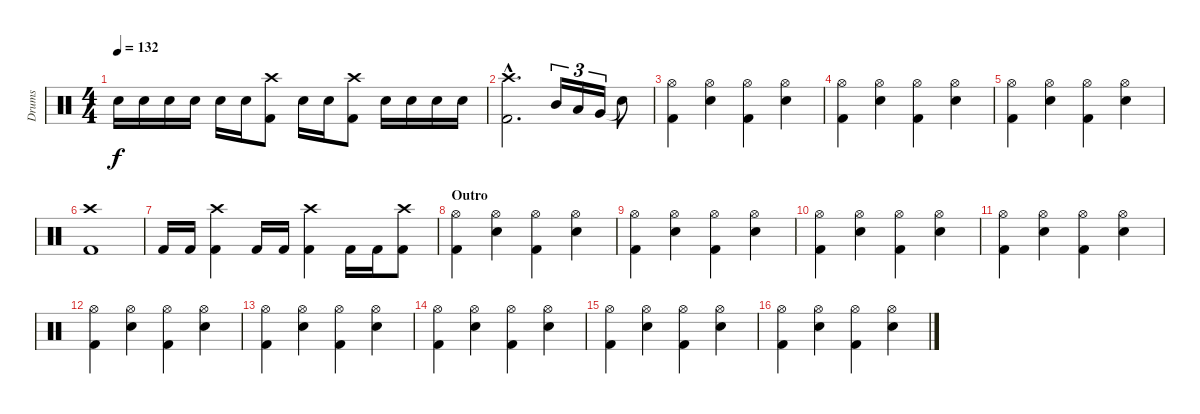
\track ("Drums" "Drums") {instrument percussion}
\staff {score}
\articulation defaults
\ts (4 4)
\tempo 132
\clef neutral
\ks c "Snare (hit) 2".16{dy f} "Snare (hit) 2".16 "Snare (hit) 2".16 "Snare (hit) 2".16 "Snare (hit) 2".16 "Snare (hit) 2".16
("Kick (hit) 2" "Crash high (hit)").8 "Snare (hit) 2".16 "Snare (hit) 2".16 ("Kick (hit) 2" "Crash high (hit)").8 "Snare (hit) 2".16 "Snare (hit) 2".16 "Snare (hit) 2".16 "Snare (hit) 2".16 |
("Kick (hit) 2"{hac} "Crash high (hit)"{hac}).2{d} "Mid Tom (hit)".16{tu (3 2)} "Low Tom (hit)".16{tu (3 2)} "Very Low Tom (hit)".16{tu (3 2)} "Snare (hit)"{t}.8 |
("Kick (hit) 2" "Hi-Hat (open)").4 ("Snare (hit) 2" "Hi-Hat (open)").4 ("Kick (hit) 2" "Hi-Hat (open)").4 ("Snare (hit) 2" "Hi-Hat (open)").4 |
("Kick (hit) 2" "Hi-Hat (open)").4 ("Snare (hit) 2" "Hi-Hat (open)").4 ("Kick (hit) 2" "Hi-Hat (open)").4 ("Snare (hit) 2" "Hi-Hat (open)").4 |
("Kick (hit) 2" "Hi-Hat (open)").4 ("Snare (hit) 2" "Hi-Hat (open)").4 ("Kick (hit) 2" "Hi-Hat (open)").4 ("Snare (hit) 2" "Hi-Hat (open)").4 |
("Kick (hit) 2" "Crash high (hit)").1 |
"Kick (hit) 2".16 "Kick (hit) 2".16 ("Kick (hit) 2" "Crash high (hit)").4 "Kick (hit) 2".16 "Kick (hit) 2".16 ("Kick (hit) 2" "Crash high (hit)").4 "Kick (hit) 2".16 "Kick (hit) 2".16 ("Kick (hit) 2" "Crash high (hit)").8 |
\section ("" "Outro")
("Kick (hit) 2" "Hi-Hat (open)").4 ("Snare (hit) 2" "Hi-Hat (open)").4 ("Kick (hit) 2" "Hi-Hat (open)").4 ("Snare (hit) 2" "Hi-Hat (open)").4 |
("Kick (hit) 2" "Hi-Hat (open)").4 ("Snare (hit) 2" "Hi-Hat (open)").4 ("Kick (hit) 2" "Hi-Hat (open)").4 ("Snare (hit) 2" "Hi-Hat (open)").4 |
("Kick (hit) 2" "Hi-Hat (open)").4 ("Snare (hit) 2" "Hi-Hat (open)").4 ("Kick (hit) 2" "Hi-Hat (open)").4 ("Snare (hit) 2" "Hi-Hat (open)").4 |
("Kick (hit) 2" "Hi-Hat (open)").4 ("Snare (hit) 2" "Hi-Hat (open)").4 ("Kick (hit) 2" "Hi-Hat (open)").4 ("Snare (hit) 2" "Hi-Hat (open)").4 |
("Kick (hit) 2" "Hi-Hat (open)").4 ("Snare (hit) 2" "Hi-Hat (open)").4 ("Kick (hit) 2" "Hi-Hat (open)").4 ("Snare (hit) 2" "Hi-Hat (open)").4 |
("Kick (hit) 2" "Hi-Hat (open)").4 ("Snare (hit) 2" "Hi-Hat (open)").4 ("Kick (hit) 2" "Hi-Hat (open)").4 ("Snare (hit) 2" "Hi-Hat (open)").4 |
("Kick (hit) 2" "Hi-Hat (open)").4 ("Snare (hit) 2" "Hi-Hat (open)").4 ("Kick (hit) 2" "Hi-Hat (open)").4 ("Snare (hit) 2" "Hi-Hat (open)").4 |
("Kick (hit) 2" "Hi-Hat (open)").4 ("Snare (hit) 2" "Hi-Hat (open)").4 ("Kick (hit) 2" "Hi-Hat (open)").4 ("Snare (hit) 2" "Hi-Hat (open)").4 |
("Kick (hit) 2" "Hi-Hat (open)").4 ("Snare (hit) 2" "Hi-Hat (open)").4 ("Kick (hit) 2" "Hi-Hat (open)").4 ("Snare (hit) 2" "Hi-Hat (open)").4
